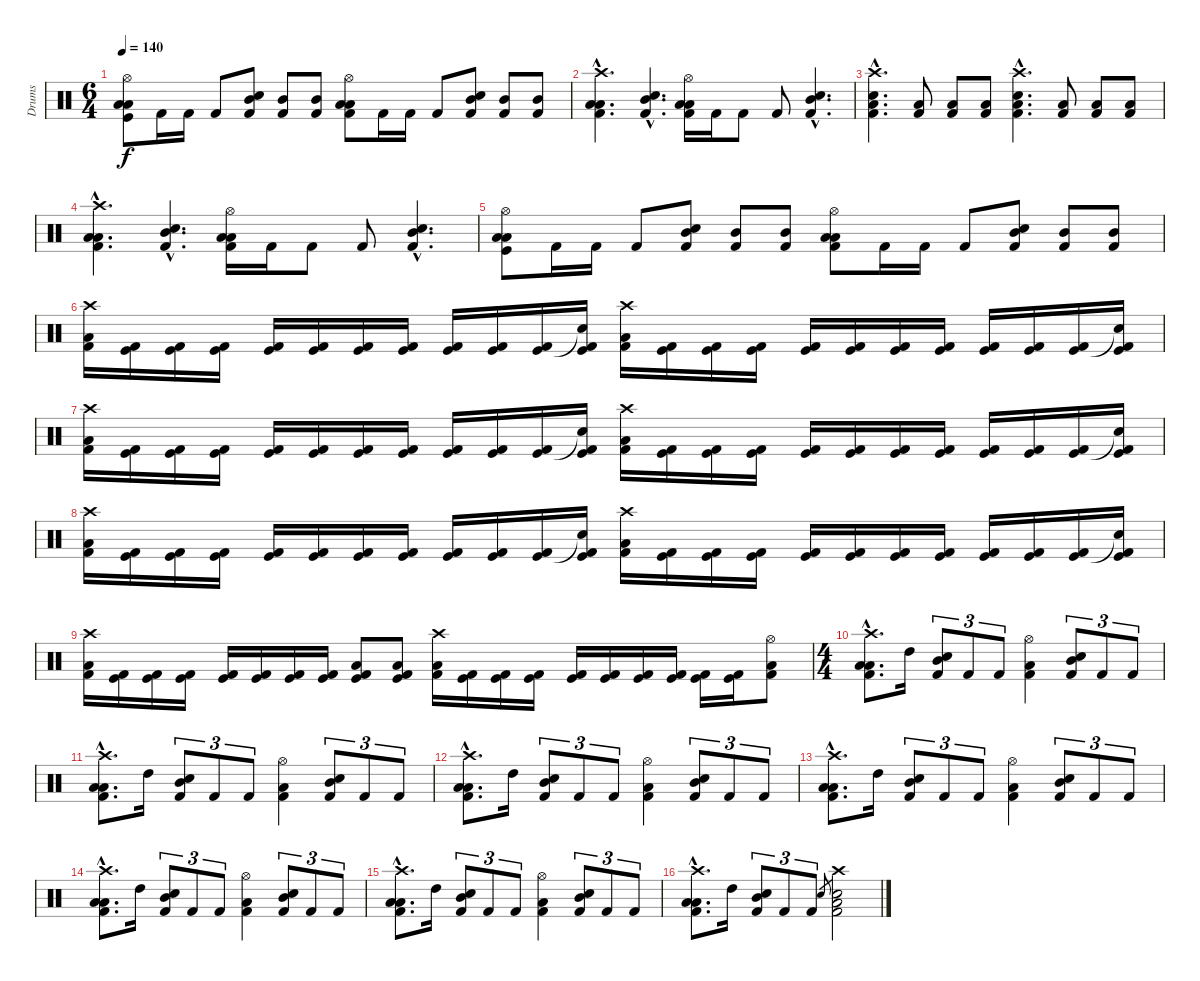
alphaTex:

\track ("Drums" "Drums") {instrument percussion}
\staff {score}
\articulation defaults
\ts (6 4)
\tempo 140
\clef neutral
\ks c
("Hi-Hat (open)" "Low Tom (hit)" "Low Tom (hit)" "Kick (hit)").8{dy f} "Kick (hit) 2".16 "Kick (hit) 2".16 "Kick (hit) 2".8 ("Snare (hit) 2" "Mid Tom (hit)" "Kick (hit) 2").8 ("Mid Tom (hit)" "Kick (hit) 2").8 ("Mid Tom (hit)" "Kick (hit) 2").8 ("Hi-Hat (open)" "Low Tom (hit)" "Low Tom (hit)" "Kick (hit) 2").8 "Kick (hit) 2".16 "Kick (hit) 2".16 "Kick (hit) 2".8 ("Snare (hit) 2" "Mid Tom (hit)" "Kick (hit) 2").8 ("Mid Tom (hit)" "Kick (hit) 2").8 ("Mid Tom (hit)" "Kick (hit) 2").8 |
("Crash high (hit)"{hac} "Low Tom (hit)"{hac} "Low Tom (hit)"{hac} "Kick (hit) 2"{hac}).4{d} ("Snare (hit) 2"{hac} "Mid Tom (hit)"{hac} "Kick (hit) 2"{hac}).4{d} ("Hi-Hat (open)" "Low Tom (hit)" "Low Tom (hit)" "Kick (hit) 2").16 "Kick (hit) 2".16 "Kick (hit) 2".8 "Kick (hit) 2".8 ("Snare (hit) 2"{hac} "Mid Tom (hit)"{hac} "Kick (hit) 2"{hac}).4{d} |
("Crash high (hit)"{hac} "Electric Snare (hit)"{hac} "Low Tom (hit)"{hac} "Kick (hit) 2"{hac}).4{d} ("Low Tom (hit)" "Kick (hit) 2").8 ("Low Tom (hit)" "Kick (hit) 2").8 ("Low Tom (hit)" "Kick (hit) 2").8 ("Crash high (hit)"{hac} "Electric Snare (hit)"{hac} "Low Tom (hit)"{hac} "Kick (hit) 2"{hac}).4{d} ("Low Tom (hit)" "Kick (hit) 2").8 ("Low Tom (hit)" "Kick (hit) 2").8 ("Low Tom (hit)" "Kick (hit) 2").8 |
("Crash high (hit)"{hac} "Low Tom (hit)"{hac} "Low Tom (hit)"{hac} "Kick (hit) 2"{hac}).4{d} ("Snare (hit) 2"{hac} "Mid Tom (hit)"{hac} "Kick (hit) 2"{hac}).4{d} ("Hi-Hat (open)" "Low Tom (hit)" "Low Tom (hit)" "Kick (hit) 2").16 "Kick (hit) 2".16 "Kick (hit) 2".8 "Kick (hit) 2".8 ("Snare (hit) 2"{hac} "Mid Tom (hit)"{hac} "Kick (hit) 2"{hac}).4{d} |
("Hi-Hat (open)" "Low Tom (hit)" "Low Tom (hit)" "Kick (hit)").8 "Kick (hit) 2".16 "Kick (hit) 2".16 "Kick (hit) 2".8 ("Snare (hit) 2" "Mid Tom (hit)" "Kick (hit) 2").8 ("Mid Tom (hit)" "Kick (hit) 2").8 ("Mid Tom (hit)" "Kick (hit) 2").8 ("Hi-Hat (open)" "Low Tom (hit)" "Low Tom (hit)" "Kick (hit) 2").8 "Kick (hit) 2".16 "Kick (hit) 2".16 "Kick (hit) 2".8 ("Snare (hit) 2" "Mid Tom (hit)" "Kick (hit) 2").8 ("Mid Tom (hit)" "Kick (hit) 2").8 ("Mid Tom (hit)" "Kick (hit) 2").8 |
("Crash high (hit)" "Low Tom (hit)" "Kick (hit) 2").16 ("Kick (hit)" "Kick (hit) 2").16 ("Kick (hit)" "Kick (hit) 2").16 ("Kick (hit)" "Kick (hit) 2").16 ("Kick (hit)" "Kick (hit) 2").16 ("Kick (hit)" "Kick (hit) 2").16 ("Kick (hit)" "Kick (hit) 2").16 ("Kick (hit)" "Kick (hit) 2").16 ("Kick (hit)" "Kick (hit) 2").16 ("Kick (hit)" "Kick (hit) 2").16 ("Kick (hit)" "Kick (hit) 2").16 ("Snare (hit)"{t} "Kick (hit)" "Kick (hit) 2").16 ("Crash high (hit)" "Low Tom (hit)" "Kick (hit) 2").16 ("Kick (hit)" "Kick (hit) 2").16 ("Kick (hit)" "Kick (hit) 2").16 ("Kick (hit)" "Kick (hit) 2").16 ("Kick (hit)" "Kick (hit) 2").16 ("Kick (hit)" "Kick (hit) 2").16 ("Kick (hit)" "Kick (hit) 2").16 ("Kick (hit)" "Kick (hit) 2").16 ("Kick (hit)" "Kick (hit) 2").16 ("Kick (hit)" "Kick (hit) 2").16 ("Kick (hit)" "Kick (hit) 2").16 ("Snare (hit)"{t} "Kick (hit)" "Kick (hit) 2").16 |
("Crash high (hit)" "Low Tom (hit)" "Kick (hit) 2").16 ("Kick (hit)" "Kick (hit) 2").16 ("Kick (hit)" "Kick (hit) 2").16 ("Kick (hit)" "Kick (hit) 2").16 ("Kick (hit)" "Kick (hit) 2").16 ("Kick (hit)" "Kick (hit) 2").16 ("Kick (hit)" "Kick (hit) 2").16 ("Kick (hit)" "Kick (hit) 2").16 ("Kick (hit)" "Kick (hit) 2").16 ("Kick (hit)" "Kick (hit) 2").16 ("Kick (hit)" "Kick (hit) 2").16 ("Snare (hit)"{t} "Kick (hit)" "Kick (hit) 2").16 ("Crash high (hit)" "Low Tom (hit)" "Kick (hit) 2").16 ("Kick (hit)" "Kick (hit) 2").16 ("Kick (hit)" "Kick (hit) 2").16 ("Kick (hit)" "Kick (hit) 2").16 ("Kick (hit)" "Kick (hit) 2").16 ("Kick (hit)" "Kick (hit) 2").16 ("Kick (hit)" "Kick (hit) 2").16 ("Kick (hit)" "Kick (hit) 2").16 ("Kick (hit)" "Kick (hit) 2").16 ("Kick (hit)" "Kick (hit) 2").16 ("Kick (hit)" "Kick (hit) 2").16 ("Snare (hit)"{t} "Kick (hit)" "Kick (hit) 2").16 |
("Crash high (hit)" "Low Tom (hit)" "Kick (hit) 2").16 ("Kick (hit)" "Kick (hit) 2").16 ("Kick (hit)" "Kick (hit) 2").16 ("Kick (hit)" "Kick (hit) 2").16 ("Kick (hit)" "Kick (hit) 2").16 ("Kick (hit)" "Kick (hit) 2").16 ("Kick (hit)" "Kick (hit) 2").16 ("Kick (hit)" "Kick (hit) 2").16 ("Kick (hit)" "Kick (hit) 2").16 ("Kick (hit)" "Kick (hit) 2").16 ("Kick (hit)" "Kick (hit) 2").16 ("Snare (hit)"{t} "Kick (hit)" "Kick (hit) 2").16 ("Crash high (hit)" "Low Tom (hit)" "Kick (hit) 2").16 ("Kick (hit)" "Kick (hit) 2").16 ("Kick (hit)" "Kick (hit) 2").16 ("Kick (hit)" "Kick (hit) 2").16 ("Kick (hit)" "Kick (hit) 2").16 ("Kick (hit)" "Kick (hit) 2").16 ("Kick (hit)" "Kick (hit) 2").16 ("Kick (hit)" "Kick (hit) 2").16 ("Kick (hit)" "Kick (hit) 2").16 ("Kick (hit)" "Kick (hit) 2").16 ("Kick (hit)" "Kick (hit) 2").16 ("Snare (hit)"{t} "Kick (hit)" "Kick (hit) 2").16 |
("Crash high (hit)" "Low Tom (hit)" "Kick (hit) 2").16 ("Kick (hit)" "Kick (hit) 2").16 ("Kick (hit)" "Kick (hit) 2").16 ("Kick (hit)" "Kick (hit) 2").16 ("Kick (hit)" "Kick (hit) 2").16 ("Kick (hit)" "Kick (hit) 2").16 ("Kick (hit)" "Kick (hit) 2").16 ("Kick (hit)" "Kick (hit) 2").16 ("Low Tom (hit)" "Kick (hit)" "Kick (hit) 2").8 ("Low Tom (hit)" "Kick (hit)" "Kick (hit) 2").8 ("Crash high (hit)" "Low Tom (hit)" "Kick (hit) 2").16 ("Kick (hit)" "Kick (hit) 2").16 ("Kick (hit)" "Kick (hit) 2").16 ("Kick (hit)" "Kick (hit) 2").16 ("Kick (hit)" "Kick (hit) 2").16 ("Kick (hit)" "Kick (hit) 2").16 ("Kick (hit)" "Kick (hit) 2").16 ("Kick (hit)" "Kick (hit) 2").16 ("Kick (hit)" "Kick (hit) 2").16 ("Kick (hit)" "Kick (hit) 2").16 ("Hi-Hat (open)" "Low Tom (hit)" "Kick (hit) 2").8 |
\ts (4 4)
("Crash high (hit)"{hac} "Low Tom (hit)"{hac} "Low Tom (hit)"{hac} "Kick (hit) 2"{hac}).8{d} "High Tom (hit)".16 ("Mid Tom (hit)" "Snare (hit) 2" "Kick (hit) 2").8{tu (3 2)} "Kick (hit) 2".8{tu (3 2)} "Kick (hit) 2".8{tu (3 2)} ("Hi-Hat (open)" "Low Tom (hit)" "Kick (hit) 2").4 ("Mid Tom (hit)" "Snare (hit) 2" "Kick (hit) 2").8{tu (3 2)} "Kick (hit) 2".8{tu (3 2)} "Kick (hit) 2".8{tu (3 2)} |
("Crash high (hit)"{hac} "Low Tom (hit)"{hac} "Low Tom (hit)"{hac} "Kick (hit) 2"{hac}).8{d} "High Tom (hit)".16 ("Mid Tom (hit)" "Snare (hit) 2" "Kick (hit) 2").8{tu (3 2)} "Kick (hit) 2".8{tu (3 2)} "Kick (hit) 2".8{tu (3 2)} ("Hi-Hat (open)" "Low Tom (hit)" "Kick (hit) 2").4 ("Mid Tom (hit)" "Snare (hit) 2" "Kick (hit) 2").8{tu (3 2)} "Kick (hit) 2".8{tu (3 2)} "Kick (hit) 2".8{tu (3 2)} |
("Crash high (hit)"{hac} "Low Tom (hit)"{hac} "Low Tom (hit)"{hac} "Kick (hit) 2"{hac}).8{d} "High Tom (hit)".16 ("Mid Tom (hit)" "Snare (hit) 2" "Kick (hit) 2").8{tu (3 2)} "Kick (hit) 2".8{tu (3 2)} "Kick (hit) 2".8{tu (3 2)} ("Hi-Hat (open)" "Low Tom (hit)" "Kick (hit) 2").4 ("Mid Tom (hit)" "Snare (hit) 2" "Kick (hit) 2").8{tu (3 2)} "Kick (hit) 2".8{tu (3 2)} "Kick (hit) 2".8{tu (3 2)} |
("Crash high (hit)"{hac} "Low Tom (hit)"{hac} "Low Tom (hit)"{hac} "Kick (hit) 2"{hac}).8{d} "High Tom (hit)".16 ("Mid Tom (hit)" "Snare (hit) 2" "Kick (hit) 2").8{tu (3 2)} "Kick (hit) 2".8{tu (3 2)} "Kick (hit) 2".8{tu (3 2)} ("Hi-Hat (open)" "Low Tom (hit)" "Kick (hit) 2").4 ("Mid Tom (hit)" "Snare (hit) 2" "Kick (hit) 2").8{tu (3 2)} "Kick (hit) 2".8{tu (3 2)} "Kick (hit) 2".8{tu (3 2)} |
("Crash high (hit)"{hac} "Low Tom (hit)"{hac} "Low Tom (hit)"{hac} "Kick (hit) 2"{hac}).8{d} "High Tom (hit)".16 ("Mid Tom (hit)" "Snare (hit) 2" "Kick (hit) 2").8{tu (3 2)} "Kick (hit) 2".8{tu (3 2)} "Kick (hit) 2".8{tu (3 2)} ("Hi-Hat (open)" "Low Tom (hit)" "Kick (hit) 2").4 ("Mid Tom (hit)" "Snare (hit) 2" "Kick (hit) 2").8{tu (3 2)} "Kick (hit) 2".8{tu (3 2)} "Kick (hit) 2".8{tu (3 2)} |
("Crash high (hit)"{hac} "Low Tom (hit)"{hac} "Low Tom (hit)"{hac} "Kick (hit) 2"{hac}).8{d} "High Tom (hit)".16 ("Mid Tom (hit)" "Snare (hit) 2" "Kick (hit) 2").8{tu (3 2)} "Kick (hit) 2".8{tu (3 2)} "Kick (hit) 2".8{tu (3 2)} ("Hi-Hat (open)" "Low Tom (hit)" "Kick (hit) 2").4 ("Mid Tom (hit)" "Snare (hit) 2" "Kick (hit) 2").8{tu (3 2)} "Kick (hit) 2".8{tu (3 2)} "Kick (hit) 2".8{tu (3 2)} |
("Crash high (hit)"{hac} "Low Tom (hit)"{hac} "Low Tom (hit)"{hac} "Kick (hit) 2"{hac}).8{d} "High Tom (hit)".16 ("Mid Tom (hit)" "Snare (hit) 2" "Kick (hit) 2").8{tu (3 2)} "Kick (hit) 2".8{tu (3 2)} "Kick (hit) 2".8{tu (3 2)} "Electric Snare (hit)".8{gr} ("Crash high (hit)" "Electric Snare (hit)" "Low Tom (hit)" "Kick (hit) 2").2
